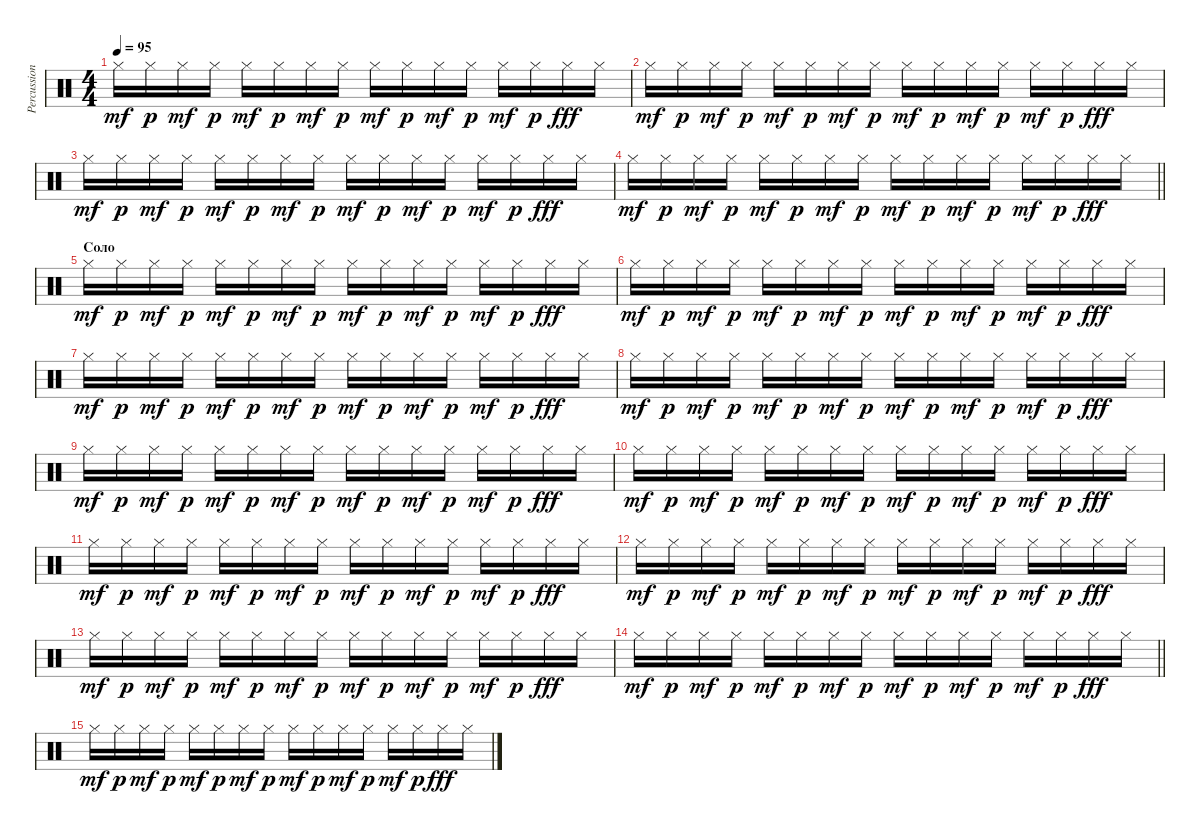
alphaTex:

\track ("Percussion" "Percussion") {instrument percussion}
\staff {score}
\articulation defaults
\ts (4 4)
\tempo 95
\clef neutral
\ks c "Hi-Hat (closed)".16{dy mf} "Hi-Hat (closed)".16{dy p} "Hi-Hat (closed)".16{dy mf} "Hi-Hat (closed)".16{dy p} "Hi-Hat (closed)".16{dy mf} "Hi-Hat (closed)".16{dy p} "Hi-Hat (closed)".16{dy mf} "Hi-Hat (closed)".16{dy p} "Hi-Hat (closed)".16{dy mf} "Hi-Hat (closed)".16{dy p} "Hi-Hat (closed)".16{dy mf} "Hi-Hat (closed)".16{dy p} "Hi-Hat (closed)".16{dy mf} "Hi-Hat (closed)".16{dy p} "Hi-Hat (closed)".16{dy fff} "Hi-Hat (closed)".16
|
"Hi-Hat (closed)".16{dy mf} "Hi-Hat (closed)".16{dy p} "Hi-Hat (closed)".16{dy mf} "Hi-Hat (closed)".16{dy p} "Hi-Hat (closed)".16{dy mf} "Hi-Hat (closed)".16{dy p} "Hi-Hat (closed)".16{dy mf} "Hi-Hat (closed)".16{dy p} "Hi-Hat (closed)".16{dy mf} "Hi-Hat (closed)".16{dy p} "Hi-Hat (closed)".16{dy mf} "Hi-Hat (closed)".16{dy p} "Hi-Hat (closed)".16{dy mf} "Hi-Hat (closed)".16{dy p} "Hi-Hat (closed)".16{dy fff} "Hi-Hat (closed)".16 |
"Hi-Hat (closed)".16{dy mf} "Hi-Hat (closed)".16{dy p} "Hi-Hat (closed)".16{dy mf} "Hi-Hat (closed)".16{dy p} "Hi-Hat (closed)".16{dy mf} "Hi-Hat (closed)".16{dy p} "Hi-Hat (closed)".16{dy mf} "Hi-Hat (closed)".16{dy p} "Hi-Hat (closed)".16{dy mf} "Hi-Hat (closed)".16{dy p} "Hi-Hat (closed)".16{dy mf} "Hi-Hat (closed)".16{dy p} "Hi-Hat (closed)".16{dy mf} "Hi-Hat (closed)".16{dy p} "Hi-Hat (closed)".16{dy fff} "Hi-Hat (closed)".16 |
\barLineRight lightlight "Hi-Hat (closed)".16{dy mf} "Hi-Hat (closed)".16{dy p} "Hi-Hat (closed)".16{dy mf} "Hi-Hat (closed)".16{dy p} "Hi-Hat (closed)".16{dy mf} "Hi-Hat (closed)".16{dy p} "Hi-Hat (closed)".16{dy mf} "Hi-Hat (closed)".16{dy p} "Hi-Hat (closed)".16{dy mf} "Hi-Hat (closed)".16{dy p} "Hi-Hat (closed)".16{dy mf} "Hi-Hat (closed)".16{dy p} "Hi-Hat (closed)".16{dy mf} "Hi-Hat (closed)".16{dy p} "Hi-Hat (closed)".16{dy fff} "Hi-Hat (closed)".16
|
\section ("" "Соло")
"Hi-Hat (closed)".16{dy mf} "Hi-Hat (closed)".16{dy p} "Hi-Hat (closed)".16{dy mf} "Hi-Hat (closed)".16{dy p} "Hi-Hat (closed)".16{dy mf} "Hi-Hat (closed)".16{dy p} "Hi-Hat (closed)".16{dy mf} "Hi-Hat (closed)".16{dy p} "Hi-Hat (closed)".16{dy mf} "Hi-Hat (closed)".16{dy p} "Hi-Hat (closed)".16{dy mf} "Hi-Hat (closed)".16{dy p} "Hi-Hat (closed)".16{dy mf} "Hi-Hat (closed)".16{dy p} "Hi-Hat (closed)".16{dy fff} "Hi-Hat (closed)".16 |
"Hi-Hat (closed)".16{dy mf} "Hi-Hat (closed)".16{dy p} "Hi-Hat (closed)".16{dy mf} "Hi-Hat (closed)".16{dy p} "Hi-Hat (closed)".16{dy mf} "Hi-Hat (closed)".16{dy p} "Hi-Hat (closed)".16{dy mf} "Hi-Hat (closed)".16{dy p} "Hi-Hat (closed)".16{dy mf} "Hi-Hat (closed)".16{dy p} "Hi-Hat (closed)".16{dy mf} "Hi-Hat (closed)".16{dy p} "Hi-Hat (closed)".16{dy mf} "Hi-Hat (closed)".16{dy p} "Hi-Hat (closed)".16{dy fff} "Hi-Hat (closed)".16 |
"Hi-Hat (closed)".16{dy mf} "Hi-Hat (closed)".16{dy p} "Hi-Hat (closed)".16{dy mf} "Hi-Hat (closed)".16{dy p} "Hi-Hat (closed)".16{dy mf} "Hi-Hat (closed)".16{dy p} "Hi-Hat (closed)".16{dy mf} "Hi-Hat (closed)".16{dy p} "Hi-Hat (closed)".16{dy mf} "Hi-Hat (closed)".16{dy p} "Hi-Hat (closed)".16{dy mf} "Hi-Hat (closed)".16{dy p} "Hi-Hat (closed)".16{dy mf} "Hi-Hat (closed)".16{dy p} "Hi-Hat (closed)".16{dy fff} "Hi-Hat (closed)".16 |
"Hi-Hat (closed)".16{dy mf} "Hi-Hat (closed)".16{dy p} "Hi-Hat (closed)".16{dy mf} "Hi-Hat (closed)".16{dy p} "Hi-Hat (closed)".16{dy mf} "Hi-Hat (closed)".16{dy p} "Hi-Hat (closed)".16{dy mf} "Hi-Hat (closed)".16{dy p} "Hi-Hat (closed)".16{dy mf} "Hi-Hat (closed)".16{dy p} "Hi-Hat (closed)".16{dy mf} "Hi-Hat (closed)".16{dy p} "Hi-Hat (closed)".16{dy mf} "Hi-Hat (closed)".16{dy p} "Hi-Hat (closed)".16{dy fff} "Hi-Hat (closed)".16 |
"Hi-Hat (closed)".16{dy mf} "Hi-Hat (closed)".16{dy p} "Hi-Hat (closed)".16{dy mf} "Hi-Hat (closed)".16{dy p} "Hi-Hat (closed)".16{dy mf} "Hi-Hat (closed)".16{dy p} "Hi-Hat (closed)".16{dy mf} "Hi-Hat (closed)".16{dy p} "Hi-Hat (closed)".16{dy mf} "Hi-Hat (closed)".16{dy p} "Hi-Hat (closed)".16{dy mf} "Hi-Hat (closed)".16{dy p} "Hi-Hat (closed)".16{dy mf} "Hi-Hat (closed)".16{dy p} "Hi-Hat (closed)".16{dy fff} "Hi-Hat (closed)".16 |
"Hi-Hat (closed)".16{dy mf} "Hi-Hat (closed)".16{dy p} "Hi-Hat (closed)".16{dy mf} "Hi-Hat (closed)".16{dy p} "Hi-Hat (closed)".16{dy mf} "Hi-Hat (closed)".16{dy p} "Hi-Hat (closed)".16{dy mf} "Hi-Hat (closed)".16{dy p} "Hi-Hat (closed)".16{dy mf} "Hi-Hat (closed)".16{dy p} "Hi-Hat (closed)".16{dy mf} "Hi-Hat (closed)".16{dy p} "Hi-Hat (closed)".16{dy mf} "Hi-Hat (closed)".16{dy p} "Hi-Hat (closed)".16{dy fff} "Hi-Hat (closed)".16 |
"Hi-Hat (closed)".16{dy mf} "Hi-Hat (closed)".16{dy p} "Hi-Hat (closed)".16{dy mf} "Hi-Hat (closed)".16{dy p} "Hi-Hat (closed)".16{dy mf} "Hi-Hat (closed)".16{dy p} "Hi-Hat (closed)".16{dy mf} "Hi-Hat (closed)".16{dy p} "Hi-Hat (closed)".16{dy mf} "Hi-Hat (closed)".16{dy p} "Hi-Hat (closed)".16{dy mf} "Hi-Hat (closed)".16{dy p} "Hi-Hat (closed)".16{dy mf} "Hi-Hat (closed)".16{dy p} "Hi-Hat (closed)".16{dy fff} "Hi-Hat (closed)".16 |
"Hi-Hat (closed)".16{dy mf} "Hi-Hat (closed)".16{dy p} "Hi-Hat (closed)".16{dy mf} "Hi-Hat (closed)".16{dy p} "Hi-Hat (closed)".16{dy mf} "Hi-Hat (closed)".16{dy p} "Hi-Hat (closed)".16{dy mf} "Hi-Hat (closed)".16{dy p} "Hi-Hat (closed)".16{dy mf} "Hi-Hat (closed)".16{dy p} "Hi-Hat (closed)".16{dy mf} "Hi-Hat (closed)".16{dy p} "Hi-Hat (closed)".16{dy mf} "Hi-Hat (closed)".16{dy p} "Hi-Hat (closed)".16{dy fff} "Hi-Hat (closed)".16 |
"Hi-Hat (closed)".16{dy mf} "Hi-Hat (closed)".16{dy p} "Hi-Hat (closed)".16{dy mf} "Hi-Hat (closed)".16{dy p} "Hi-Hat (closed)".16{dy mf} "Hi-Hat (closed)".16{dy p} "Hi-Hat (closed)".16{dy mf} "Hi-Hat (closed)".16{dy p} "Hi-Hat (closed)".16{dy mf} "Hi-Hat (closed)".16{dy p} "Hi-Hat (closed)".16{dy mf} "Hi-Hat (closed)".16{dy p} "Hi-Hat (closed)".16{dy mf} "Hi-Hat (closed)".16{dy p} "Hi-Hat (closed)".16{dy fff} "Hi-Hat (closed)".16 |
\barLineRight lightlight "Hi-Hat (closed)".16{dy mf} "Hi-Hat (closed)".16{dy p} "Hi-Hat (closed)".16{dy mf} "Hi-Hat (closed)".16{dy p} "Hi-Hat (closed)".16{dy mf} "Hi-Hat (closed)".16{dy p} "Hi-Hat (closed)".16{dy mf} "Hi-Hat (closed)".16{dy p} "Hi-Hat (closed)".16{dy mf} "Hi-Hat (closed)".16{dy p} "Hi-Hat (closed)".16{dy mf} "Hi-Hat (closed)".16{dy p} "Hi-Hat (closed)".16{dy mf} "Hi-Hat (closed)".16{dy p} "Hi-Hat (closed)".16{dy fff} "Hi-Hat (closed)".16
|
"Hi-Hat (closed)".16{dy mf} "Hi-Hat (closed)".16{dy p} "Hi-Hat (closed)".16{dy mf} "Hi-Hat (closed)".16{dy p} "Hi-Hat (closed)".16{dy mf} "Hi-Hat (closed)".16{dy p} "Hi-Hat (closed)".16{dy mf} "Hi-Hat (closed)".16{dy p} "Hi-Hat (closed)".16{dy mf} "Hi-Hat (closed)".16{dy p} "Hi-Hat (closed)".16{dy mf} "Hi-Hat (closed)".16{dy p} "Hi-Hat (closed)".16{dy mf} "Hi-Hat (closed)".16{dy p} "Hi-Hat (closed)".16{dy fff} "Hi-Hat (closed)".16
